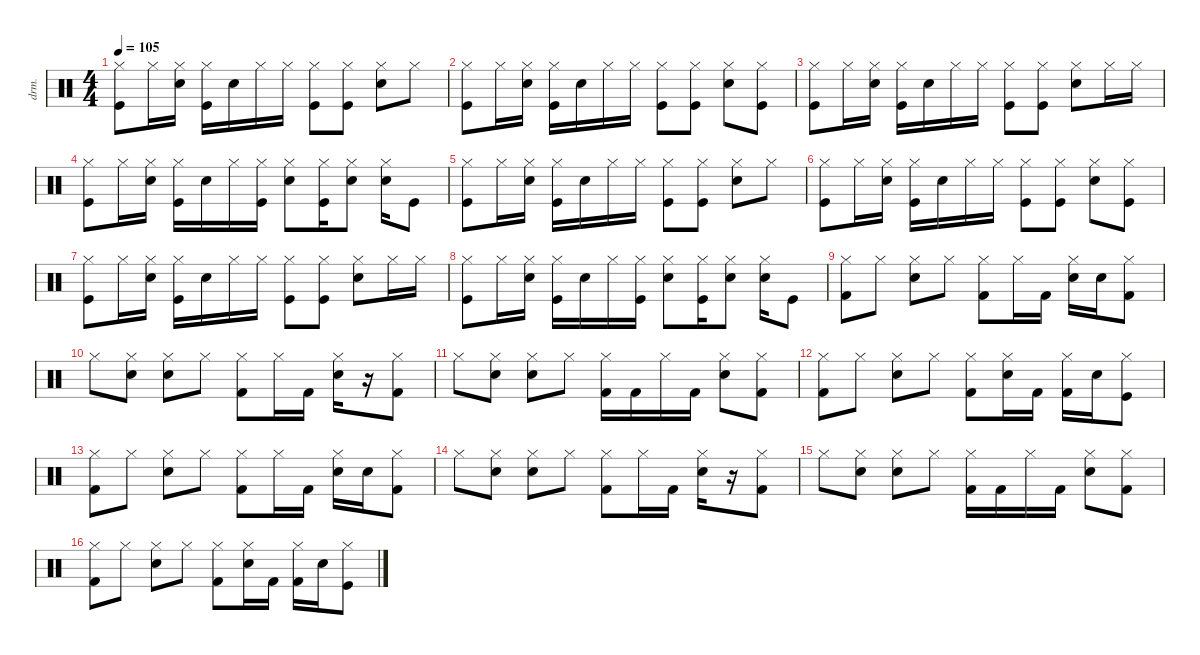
\defaultSystemsLayout 4
\hideDynamics
\bracketExtendMode nobrackets
\otherSystemsTrackNameOrientation horizontal
\track ("Drumkit" "drm.") {instrument percussion}
\staff {score}
\articulation defaults
\ts (4 4)
\tempo 105
\clef neutral
\ks c
("Hi-Hat (closed)" "Kick (hit)").8{dy mf} "Hi-Hat (closed)".16 ("Hi-Hat (closed)" "Snare (hit) 2").16 ("Hi-Hat (closed)" "Kick (hit)").16 "Snare (hit) 2".16 "Hi-Hat (closed)".16 "Hi-Hat (closed)".16 ("Hi-Hat (closed)" "Kick (hit)").8 ("Hi-Hat (closed)" "Kick (hit)").8 ("Hi-Hat (closed)" "Snare (hit) 2").8 "Hi-Hat (closed)".8 |
("Hi-Hat (closed)" "Kick (hit)").8 "Hi-Hat (closed)".16 ("Hi-Hat (closed)" "Snare (hit) 2").16 ("Hi-Hat (closed)" "Kick (hit)").16 "Snare (hit) 2".16 "Hi-Hat (closed)".16 "Hi-Hat (closed)".16 ("Hi-Hat (closed)" "Kick (hit)").8 ("Hi-Hat (closed)" "Kick (hit)").8 ("Hi-Hat (closed)" "Snare (hit) 2").8 ("Hi-Hat (closed)" "Kick (hit)").8 |
("Hi-Hat (closed)" "Kick (hit)").8 "Hi-Hat (closed)".16 ("Hi-Hat (closed)" "Snare (hit) 2").16 ("Hi-Hat (closed)" "Kick (hit)").16 "Snare (hit) 2".16 "Hi-Hat (closed)".16 "Hi-Hat (closed)".16 ("Hi-Hat (closed)" "Kick (hit)").8 ("Hi-Hat (closed)" "Kick (hit)").8 ("Hi-Hat (closed)" "Snare (hit) 2").8 "Hi-Hat (closed)".16 "Hi-Hat (closed)".16 |
("Hi-Hat (closed)" "Kick (hit)").8 "Hi-Hat (closed)".16 ("Hi-Hat (closed)" "Snare (hit) 2").16 ("Hi-Hat (closed)" "Kick (hit)").16 "Snare (hit) 2".16 "Hi-Hat (closed)".16 ("Hi-Hat (closed)" "Kick (hit)").16 ("Hi-Hat (closed)" "Snare (hit) 2").8 ("Hi-Hat (closed)" "Kick (hit)").16 ("Hi-Hat (closed)" "Snare (hit) 2").8 ("Hi-Hat (closed)" "Snare (hit) 2").16 "Kick (hit)".8 |
("Hi-Hat (closed)" "Kick (hit)").8 "Hi-Hat (closed)".16 ("Hi-Hat (closed)" "Snare (hit) 2").16 ("Hi-Hat (closed)" "Kick (hit)").16 "Snare (hit) 2".16 "Hi-Hat (closed)".16 "Hi-Hat (closed)".16 ("Hi-Hat (closed)" "Kick (hit)").8 ("Hi-Hat (closed)" "Kick (hit)").8 ("Hi-Hat (closed)" "Snare (hit) 2").8 "Hi-Hat (closed)".8 |
("Hi-Hat (closed)" "Kick (hit)").8 "Hi-Hat (closed)".16 ("Hi-Hat (closed)" "Snare (hit) 2").16 ("Hi-Hat (closed)" "Kick (hit)").16 "Snare (hit) 2".16 "Hi-Hat (closed)".16 "Hi-Hat (closed)".16 ("Hi-Hat (closed)" "Kick (hit)").8 ("Hi-Hat (closed)" "Kick (hit)").8 ("Hi-Hat (closed)" "Snare (hit) 2").8 ("Hi-Hat (closed)" "Kick (hit)").8 |
("Hi-Hat (closed)" "Kick (hit)").8 "Hi-Hat (closed)".16 ("Hi-Hat (closed)" "Snare (hit) 2").16 ("Hi-Hat (closed)" "Kick (hit)").16 "Snare (hit) 2".16 "Hi-Hat (closed)".16 "Hi-Hat (closed)".16 ("Hi-Hat (closed)" "Kick (hit)").8 ("Hi-Hat (closed)" "Kick (hit)").8 ("Hi-Hat (closed)" "Snare (hit) 2").8 "Hi-Hat (closed)".16 "Hi-Hat (closed)".16 |
("Hi-Hat (closed)" "Kick (hit)").8 "Hi-Hat (closed)".16 ("Hi-Hat (closed)" "Snare (hit) 2").16 ("Hi-Hat (closed)" "Kick (hit)").16 "Snare (hit) 2".16 "Hi-Hat (closed)".16 ("Hi-Hat (closed)" "Kick (hit)").16 ("Hi-Hat (closed)" "Snare (hit) 2").8 ("Hi-Hat (closed)" "Kick (hit)").16 ("Hi-Hat (closed)" "Snare (hit) 2").8 ("Hi-Hat (closed)" "Snare (hit) 2").16 "Kick (hit)".8 |
("Hi-Hat (closed)" "Kick (hit) 2").8 "Hi-Hat (closed)".8 ("Hi-Hat (closed)" "Snare (hit) 2").8 "Hi-Hat (closed)".8 ("Hi-Hat (closed)" "Kick (hit) 2").8 "Hi-Hat (closed)".16 "Kick (hit) 2".16 ("Hi-Hat (closed)" "Snare (hit) 2").16 "Snare (hit) 2".16 ("Hi-Hat (closed)" "Kick (hit) 2").8 |
"Hi-Hat (closed)".8 ("Hi-Hat (closed)" "Snare (hit) 2").8 ("Hi-Hat (closed)" "Snare (hit) 2").8 "Hi-Hat (closed)".8 ("Hi-Hat (closed)" "Kick (hit) 2").8 "Hi-Hat (closed)".16 "Kick (hit) 2".16 ("Hi-Hat (closed)" "Snare (hit) 2").16 r.16 ("Hi-Hat (closed)" "Kick (hit) 2").8 |
"Hi-Hat (closed)".8 ("Hi-Hat (closed)" "Snare (hit) 2").8 ("Hi-Hat (closed)" "Snare (hit) 2").8 "Hi-Hat (closed)".8 ("Kick (hit) 2" "Hi-Hat (closed)").16 "Kick (hit) 2".16 "Hi-Hat (closed)".16 "Kick (hit) 2".16 ("Hi-Hat (closed)" "Snare (hit) 2").8 ("Hi-Hat (closed)" "Kick (hit) 2").8 |
("Hi-Hat (closed)" "Kick (hit) 2").8 "Hi-Hat (closed)".8 ("Hi-Hat (closed)" "Snare (hit) 2").8 "Hi-Hat (closed)".8 ("Hi-Hat (closed)" "Kick (hit) 2").8 ("Hi-Hat (closed)" "Snare (hit) 2").16 "Kick (hit) 2".16 ("Hi-Hat (closed)" "Kick (hit) 2").16 "Snare (hit) 2".16 ("Hi-Hat (closed)" "Kick (hit)").8 |
("Hi-Hat (closed)" "Kick (hit) 2").8 "Hi-Hat (closed)".8 ("Hi-Hat (closed)" "Snare (hit) 2").8 "Hi-Hat (closed)".8 ("Hi-Hat (closed)" "Kick (hit) 2").8 "Hi-Hat (closed)".16 "Kick (hit) 2".16 ("Hi-Hat (closed)" "Snare (hit) 2").16 "Snare (hit) 2".16 ("Hi-Hat (closed)" "Kick (hit) 2").8 |
"Hi-Hat (closed)".8 ("Hi-Hat (closed)" "Snare (hit) 2").8 ("Hi-Hat (closed)" "Snare (hit) 2").8 "Hi-Hat (closed)".8 ("Hi-Hat (closed)" "Kick (hit) 2").8 "Hi-Hat (closed)".16 "Kick (hit) 2".16 ("Hi-Hat (closed)" "Snare (hit) 2").16 r.16 ("Hi-Hat (closed)" "Kick (hit) 2").8 |
"Hi-Hat (closed)".8 ("Hi-Hat (closed)" "Snare (hit) 2").8 ("Hi-Hat (closed)" "Snare (hit) 2").8 "Hi-Hat (closed)".8 ("Kick (hit) 2" "Hi-Hat (closed)").16 "Kick (hit) 2".16 "Hi-Hat (closed)".16 "Kick (hit) 2".16 ("Hi-Hat (closed)" "Snare (hit) 2").8 ("Hi-Hat (closed)" "Kick (hit) 2").8 |
("Hi-Hat (closed)" "Kick (hit) 2").8 "Hi-Hat (closed)".8 ("Hi-Hat (closed)" "Snare (hit) 2").8 "Hi-Hat (closed)".8 ("Hi-Hat (closed)" "Kick (hit) 2").8 ("Hi-Hat (closed)" "Snare (hit) 2").16 "Kick (hit) 2".16 ("Hi-Hat (closed)" "Kick (hit) 2").16 "Snare (hit) 2".16 ("Hi-Hat (closed)" "Kick (hit)").8
